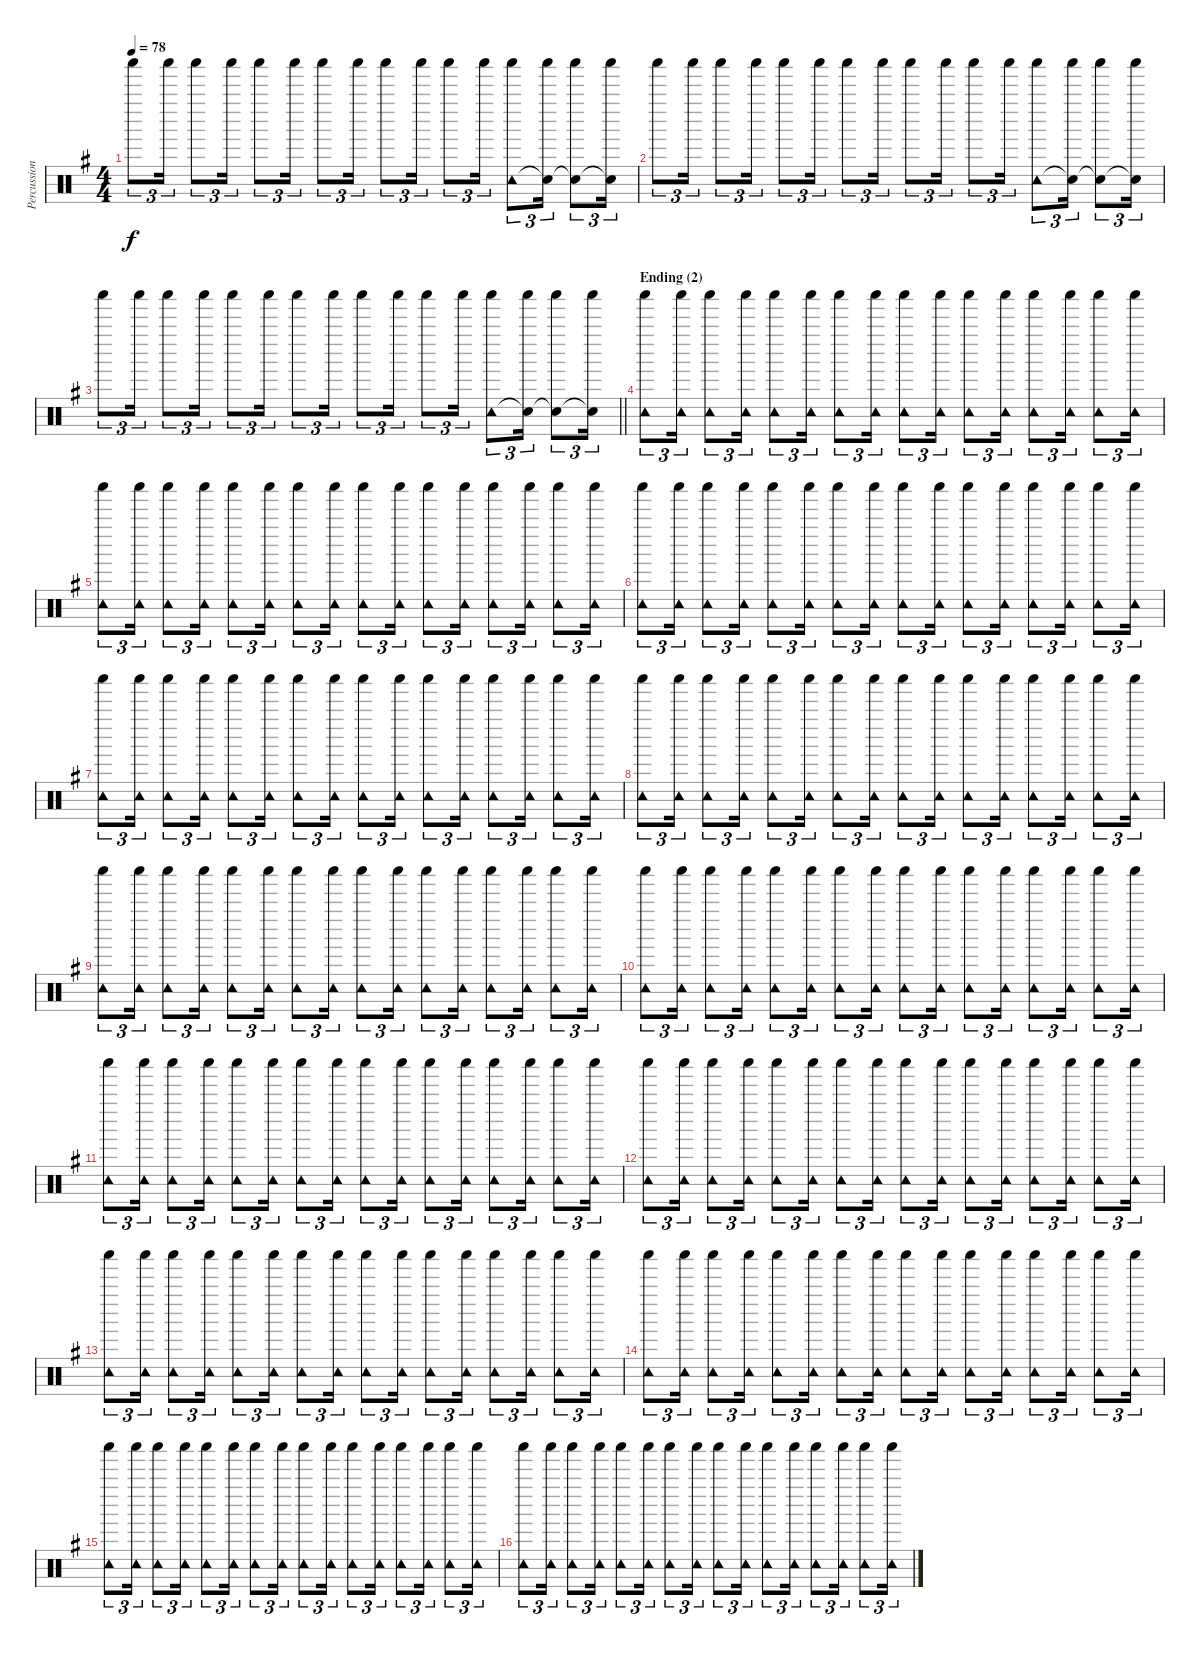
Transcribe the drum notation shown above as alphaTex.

\track ("Percussion" "Percussion") {instrument percussion}
\staff {score}
\articulation defaults
\ts (4 4)
\tempo 78
\clef neutral
\ks g "Shaker (hit)".8{tu (3 2) dy f} "Shaker (hit)".16{tu (3 2)} "Shaker (hit)".8{tu (3 2)} "Shaker (hit)".16{tu (3 2)} "Shaker (hit)".8{tu (3 2)} "Shaker (hit)".16{tu (3 2)} "Shaker (hit)".8{tu (3 2)} "Shaker (hit)".16{tu (3 2)} "Shaker (hit)".8{tu (3 2)} "Shaker (hit)".16{tu (3 2)} "Shaker (hit)".8{tu (3 2)} "Shaker (hit)".16{tu (3 2)}
("Shaker (hit)" "Tambourine (hit)").8{tu (3 2)} ("Shaker (hit)" "Snare (hit)"{t}).16{tu (3 2)} ("Shaker (hit)" "Snare (hit)"{t}).8{tu (3 2)} ("Shaker (hit)" "Snare (hit)"{t}).16{tu (3 2)} |
"Shaker (hit)".8{tu (3 2)} "Shaker (hit)".16{tu (3 2)} "Shaker (hit)".8{tu (3 2)} "Shaker (hit)".16{tu (3 2)} "Shaker (hit)".8{tu (3 2)} "Shaker (hit)".16{tu (3 2)} "Shaker (hit)".8{tu (3 2)} "Shaker (hit)".16{tu (3 2)} "Shaker (hit)".8{tu (3 2)} "Shaker (hit)".16{tu (3 2)} "Shaker (hit)".8{tu (3 2)} "Shaker (hit)".16{tu (3 2)} ("Shaker (hit)" "Tambourine (hit)").8{tu (3 2)} ("Shaker (hit)" "Snare (hit)"{t}).16{tu (3 2)} ("Shaker (hit)" "Snare (hit)"{t}).8{tu (3 2)} ("Shaker (hit)" "Snare (hit)"{t}).16{tu (3 2)} |
\barLineRight lightlight "Shaker (hit)".8{tu (3 2)} "Shaker (hit)".16{tu (3 2)} "Shaker (hit)".8{tu (3 2)} "Shaker (hit)".16{tu (3 2)} "Shaker (hit)".8{tu (3 2)} "Shaker (hit)".16{tu (3 2)} "Shaker (hit)".8{tu (3 2)} "Shaker (hit)".16{tu (3 2)} "Shaker (hit)".8{tu (3 2)} "Shaker (hit)".16{tu (3 2)} "Shaker (hit)".8{tu (3 2)} "Shaker (hit)".16{tu (3 2)}
("Shaker (hit)" "Tambourine (hit)").8{tu (3 2)} ("Shaker (hit)" "Snare (hit)"{t}).16{tu (3 2)} ("Shaker (hit)" "Snare (hit)"{t}).8{tu (3 2)} ("Shaker (hit)" "Snare (hit)"{t}).16{tu (3 2)} |
\section ("" "Ending (2)")
("Shaker (hit)" "Tambourine (hit)").8{tu (3 2)} ("Shaker (hit)" "Tambourine (hit)").16{tu (3 2)} ("Shaker (hit)" "Tambourine (hit)").8{tu (3 2)} ("Shaker (hit)" "Tambourine (hit)").16{tu (3 2)} ("Shaker (hit)" "Tambourine (hit)").8{tu (3 2)} ("Shaker (hit)" "Tambourine (hit)").16{tu (3 2)} ("Shaker (hit)" "Tambourine (hit)").8{tu (3 2)} ("Shaker (hit)" "Tambourine (hit)").16{tu (3 2)} ("Shaker (hit)" "Tambourine (hit)").8{tu (3 2)} ("Shaker (hit)" "Tambourine (hit)").16{tu (3 2)} ("Shaker (hit)" "Tambourine (hit)").8{tu (3 2)} ("Shaker (hit)" "Tambourine (hit)").16{tu (3 2)} ("Shaker (hit)" "Tambourine (hit)").8{tu (3 2)} ("Shaker (hit)" "Tambourine (hit)").16{tu (3 2)} ("Shaker (hit)" "Tambourine (hit)").8{tu (3 2)} ("Shaker (hit)" "Tambourine (hit)").16{tu (3 2)} |
("Shaker (hit)" "Tambourine (hit)").8{tu (3 2)} ("Shaker (hit)" "Tambourine (hit)").16{tu (3 2)} ("Shaker (hit)" "Tambourine (hit)").8{tu (3 2)} ("Shaker (hit)" "Tambourine (hit)").16{tu (3 2)} ("Shaker (hit)" "Tambourine (hit)").8{tu (3 2)} ("Shaker (hit)" "Tambourine (hit)").16{tu (3 2)} ("Shaker (hit)" "Tambourine (hit)").8{tu (3 2)} ("Shaker (hit)" "Tambourine (hit)").16{tu (3 2)} ("Shaker (hit)" "Tambourine (hit)").8{tu (3 2)} ("Shaker (hit)" "Tambourine (hit)").16{tu (3 2)} ("Shaker (hit)" "Tambourine (hit)").8{tu (3 2)} ("Shaker (hit)" "Tambourine (hit)").16{tu (3 2)} ("Shaker (hit)" "Tambourine (hit)").8{tu (3 2)} ("Shaker (hit)" "Tambourine (hit)").16{tu (3 2)} ("Shaker (hit)" "Tambourine (hit)").8{tu (3 2)} ("Shaker (hit)" "Tambourine (hit)").16{tu (3 2)} |
("Shaker (hit)" "Tambourine (hit)").8{tu (3 2)} ("Shaker (hit)" "Tambourine (hit)").16{tu (3 2)} ("Shaker (hit)" "Tambourine (hit)").8{tu (3 2)} ("Shaker (hit)" "Tambourine (hit)").16{tu (3 2)} ("Shaker (hit)" "Tambourine (hit)").8{tu (3 2)} ("Shaker (hit)" "Tambourine (hit)").16{tu (3 2)} ("Shaker (hit)" "Tambourine (hit)").8{tu (3 2)} ("Shaker (hit)" "Tambourine (hit)").16{tu (3 2)} ("Shaker (hit)" "Tambourine (hit)").8{tu (3 2)} ("Shaker (hit)" "Tambourine (hit)").16{tu (3 2)} ("Shaker (hit)" "Tambourine (hit)").8{tu (3 2)} ("Shaker (hit)" "Tambourine (hit)").16{tu (3 2)} ("Shaker (hit)" "Tambourine (hit)").8{tu (3 2)} ("Shaker (hit)" "Tambourine (hit)").16{tu (3 2)} ("Shaker (hit)" "Tambourine (hit)").8{tu (3 2)} ("Shaker (hit)" "Tambourine (hit)").16{tu (3 2)} |
("Shaker (hit)" "Tambourine (hit)").8{tu (3 2)} ("Shaker (hit)" "Tambourine (hit)").16{tu (3 2)} ("Shaker (hit)" "Tambourine (hit)").8{tu (3 2)} ("Shaker (hit)" "Tambourine (hit)").16{tu (3 2)} ("Shaker (hit)" "Tambourine (hit)").8{tu (3 2)} ("Shaker (hit)" "Tambourine (hit)").16{tu (3 2)} ("Shaker (hit)" "Tambourine (hit)").8{tu (3 2)} ("Shaker (hit)" "Tambourine (hit)").16{tu (3 2)} ("Shaker (hit)" "Tambourine (hit)").8{tu (3 2)} ("Shaker (hit)" "Tambourine (hit)").16{tu (3 2)} ("Shaker (hit)" "Tambourine (hit)").8{tu (3 2)} ("Shaker (hit)" "Tambourine (hit)").16{tu (3 2)} ("Shaker (hit)" "Tambourine (hit)").8{tu (3 2)} ("Shaker (hit)" "Tambourine (hit)").16{tu (3 2)} ("Shaker (hit)" "Tambourine (hit)").8{tu (3 2)} ("Shaker (hit)" "Tambourine (hit)").16{tu (3 2)} |
("Shaker (hit)" "Tambourine (hit)").8{tu (3 2)} ("Shaker (hit)" "Tambourine (hit)").16{tu (3 2)} ("Shaker (hit)" "Tambourine (hit)").8{tu (3 2)} ("Shaker (hit)" "Tambourine (hit)").16{tu (3 2)} ("Shaker (hit)" "Tambourine (hit)").8{tu (3 2)} ("Shaker (hit)" "Tambourine (hit)").16{tu (3 2)} ("Shaker (hit)" "Tambourine (hit)").8{tu (3 2)} ("Shaker (hit)" "Tambourine (hit)").16{tu (3 2)} ("Shaker (hit)" "Tambourine (hit)").8{tu (3 2)} ("Shaker (hit)" "Tambourine (hit)").16{tu (3 2)} ("Shaker (hit)" "Tambourine (hit)").8{tu (3 2)} ("Shaker (hit)" "Tambourine (hit)").16{tu (3 2)} ("Shaker (hit)" "Tambourine (hit)").8{tu (3 2)} ("Shaker (hit)" "Tambourine (hit)").16{tu (3 2)} ("Shaker (hit)" "Tambourine (hit)").8{tu (3 2)} ("Shaker (hit)" "Tambourine (hit)").16{tu (3 2)} |
("Shaker (hit)" "Tambourine (hit)").8{tu (3 2)} ("Shaker (hit)" "Tambourine (hit)").16{tu (3 2)} ("Shaker (hit)" "Tambourine (hit)").8{tu (3 2)} ("Shaker (hit)" "Tambourine (hit)").16{tu (3 2)} ("Shaker (hit)" "Tambourine (hit)").8{tu (3 2)} ("Shaker (hit)" "Tambourine (hit)").16{tu (3 2)} ("Shaker (hit)" "Tambourine (hit)").8{tu (3 2)} ("Shaker (hit)" "Tambourine (hit)").16{tu (3 2)} ("Shaker (hit)" "Tambourine (hit)").8{tu (3 2)} ("Shaker (hit)" "Tambourine (hit)").16{tu (3 2)} ("Shaker (hit)" "Tambourine (hit)").8{tu (3 2)} ("Shaker (hit)" "Tambourine (hit)").16{tu (3 2)} ("Shaker (hit)" "Tambourine (hit)").8{tu (3 2)} ("Shaker (hit)" "Tambourine (hit)").16{tu (3 2)} ("Shaker (hit)" "Tambourine (hit)").8{tu (3 2)} ("Shaker (hit)" "Tambourine (hit)").16{tu (3 2)} |
("Shaker (hit)" "Tambourine (hit)").8{tu (3 2)} ("Shaker (hit)" "Tambourine (hit)").16{tu (3 2)} ("Shaker (hit)" "Tambourine (hit)").8{tu (3 2)} ("Shaker (hit)" "Tambourine (hit)").16{tu (3 2)} ("Shaker (hit)" "Tambourine (hit)").8{tu (3 2)} ("Shaker (hit)" "Tambourine (hit)").16{tu (3 2)} ("Shaker (hit)" "Tambourine (hit)").8{tu (3 2)} ("Shaker (hit)" "Tambourine (hit)").16{tu (3 2)} ("Shaker (hit)" "Tambourine (hit)").8{tu (3 2)} ("Shaker (hit)" "Tambourine (hit)").16{tu (3 2)} ("Shaker (hit)" "Tambourine (hit)").8{tu (3 2)} ("Shaker (hit)" "Tambourine (hit)").16{tu (3 2)} ("Shaker (hit)" "Tambourine (hit)").8{tu (3 2)} ("Shaker (hit)" "Tambourine (hit)").16{tu (3 2)} ("Shaker (hit)" "Tambourine (hit)").8{tu (3 2)} ("Shaker (hit)" "Tambourine (hit)").16{tu (3 2)} |
("Shaker (hit)" "Tambourine (hit)").8{tu (3 2)} ("Shaker (hit)" "Tambourine (hit)").16{tu (3 2)} ("Shaker (hit)" "Tambourine (hit)").8{tu (3 2)} ("Shaker (hit)" "Tambourine (hit)").16{tu (3 2)} ("Shaker (hit)" "Tambourine (hit)").8{tu (3 2)} ("Shaker (hit)" "Tambourine (hit)").16{tu (3 2)} ("Shaker (hit)" "Tambourine (hit)").8{tu (3 2)} ("Shaker (hit)" "Tambourine (hit)").16{tu (3 2)} ("Shaker (hit)" "Tambourine (hit)").8{tu (3 2)} ("Shaker (hit)" "Tambourine (hit)").16{tu (3 2)} ("Shaker (hit)" "Tambourine (hit)").8{tu (3 2)} ("Shaker (hit)" "Tambourine (hit)").16{tu (3 2)} ("Shaker (hit)" "Tambourine (hit)").8{tu (3 2)} ("Shaker (hit)" "Tambourine (hit)").16{tu (3 2)} ("Shaker (hit)" "Tambourine (hit)").8{tu (3 2)} ("Shaker (hit)" "Tambourine (hit)").16{tu (3 2)} |
("Shaker (hit)" "Tambourine (hit)").8{tu (3 2)} ("Shaker (hit)" "Tambourine (hit)").16{tu (3 2)} ("Shaker (hit)" "Tambourine (hit)").8{tu (3 2)} ("Shaker (hit)" "Tambourine (hit)").16{tu (3 2)} ("Shaker (hit)" "Tambourine (hit)").8{tu (3 2)} ("Shaker (hit)" "Tambourine (hit)").16{tu (3 2)} ("Shaker (hit)" "Tambourine (hit)").8{tu (3 2)} ("Shaker (hit)" "Tambourine (hit)").16{tu (3 2)} ("Shaker (hit)" "Tambourine (hit)").8{tu (3 2)} ("Shaker (hit)" "Tambourine (hit)").16{tu (3 2)} ("Shaker (hit)" "Tambourine (hit)").8{tu (3 2)} ("Shaker (hit)" "Tambourine (hit)").16{tu (3 2)} ("Shaker (hit)" "Tambourine (hit)").8{tu (3 2)} ("Shaker (hit)" "Tambourine (hit)").16{tu (3 2)} ("Shaker (hit)" "Tambourine (hit)").8{tu (3 2)} ("Shaker (hit)" "Tambourine (hit)").16{tu (3 2)} |
("Shaker (hit)" "Tambourine (hit)").8{tu (3 2)} ("Shaker (hit)" "Tambourine (hit)").16{tu (3 2)} ("Shaker (hit)" "Tambourine (hit)").8{tu (3 2)} ("Shaker (hit)" "Tambourine (hit)").16{tu (3 2)} ("Shaker (hit)" "Tambourine (hit)").8{tu (3 2)} ("Shaker (hit)" "Tambourine (hit)").16{tu (3 2)} ("Shaker (hit)" "Tambourine (hit)").8{tu (3 2)} ("Shaker (hit)" "Tambourine (hit)").16{tu (3 2)} ("Shaker (hit)" "Tambourine (hit)").8{tu (3 2)} ("Shaker (hit)" "Tambourine (hit)").16{tu (3 2)} ("Shaker (hit)" "Tambourine (hit)").8{tu (3 2)} ("Shaker (hit)" "Tambourine (hit)").16{tu (3 2)} ("Shaker (hit)" "Tambourine (hit)").8{tu (3 2)} ("Shaker (hit)" "Tambourine (hit)").16{tu (3 2)} ("Shaker (hit)" "Tambourine (hit)").8{tu (3 2)} ("Shaker (hit)" "Tambourine (hit)").16{tu (3 2)} |
("Shaker (hit)" "Tambourine (hit)").8{tu (3 2)} ("Shaker (hit)" "Tambourine (hit)").16{tu (3 2)} ("Shaker (hit)" "Tambourine (hit)").8{tu (3 2)} ("Shaker (hit)" "Tambourine (hit)").16{tu (3 2)} ("Shaker (hit)" "Tambourine (hit)").8{tu (3 2)} ("Shaker (hit)" "Tambourine (hit)").16{tu (3 2)} ("Shaker (hit)" "Tambourine (hit)").8{tu (3 2)} ("Shaker (hit)" "Tambourine (hit)").16{tu (3 2)} ("Shaker (hit)" "Tambourine (hit)").8{tu (3 2)} ("Shaker (hit)" "Tambourine (hit)").16{tu (3 2)} ("Shaker (hit)" "Tambourine (hit)").8{tu (3 2)} ("Shaker (hit)" "Tambourine (hit)").16{tu (3 2)} ("Shaker (hit)" "Tambourine (hit)").8{tu (3 2)} ("Shaker (hit)" "Tambourine (hit)").16{tu (3 2)} ("Shaker (hit)" "Tambourine (hit)").8{tu (3 2)} ("Shaker (hit)" "Tambourine (hit)").16{tu (3 2)} |
("Shaker (hit)" "Tambourine (hit)").8{tu (3 2)} ("Shaker (hit)" "Tambourine (hit)").16{tu (3 2)} ("Shaker (hit)" "Tambourine (hit)").8{tu (3 2)} ("Shaker (hit)" "Tambourine (hit)").16{tu (3 2)} ("Shaker (hit)" "Tambourine (hit)").8{tu (3 2)} ("Shaker (hit)" "Tambourine (hit)").16{tu (3 2)} ("Shaker (hit)" "Tambourine (hit)").8{tu (3 2)} ("Shaker (hit)" "Tambourine (hit)").16{tu (3 2)} ("Shaker (hit)" "Tambourine (hit)").8{tu (3 2)} ("Shaker (hit)" "Tambourine (hit)").16{tu (3 2)} ("Shaker (hit)" "Tambourine (hit)").8{tu (3 2)} ("Shaker (hit)" "Tambourine (hit)").16{tu (3 2)} ("Shaker (hit)" "Tambourine (hit)").8{tu (3 2)} ("Shaker (hit)" "Tambourine (hit)").16{tu (3 2)} ("Shaker (hit)" "Tambourine (hit)").8{tu (3 2)} ("Shaker (hit)" "Tambourine (hit)").16{tu (3 2)} |
("Shaker (hit)" "Tambourine (hit)").8{tu (3 2)} ("Shaker (hit)" "Tambourine (hit)").16{tu (3 2)} ("Shaker (hit)" "Tambourine (hit)").8{tu (3 2)} ("Shaker (hit)" "Tambourine (hit)").16{tu (3 2)} ("Shaker (hit)" "Tambourine (hit)").8{tu (3 2)} ("Shaker (hit)" "Tambourine (hit)").16{tu (3 2)} ("Shaker (hit)" "Tambourine (hit)").8{tu (3 2)} ("Shaker (hit)" "Tambourine (hit)").16{tu (3 2)} ("Shaker (hit)" "Tambourine (hit)").8{tu (3 2)} ("Shaker (hit)" "Tambourine (hit)").16{tu (3 2)} ("Shaker (hit)" "Tambourine (hit)").8{tu (3 2)} ("Shaker (hit)" "Tambourine (hit)").16{tu (3 2)} ("Shaker (hit)" "Tambourine (hit)").8{tu (3 2)} ("Shaker (hit)" "Tambourine (hit)").16{tu (3 2)} ("Shaker (hit)" "Tambourine (hit)").8{tu (3 2)} ("Shaker (hit)" "Tambourine (hit)").16{tu (3 2)}
